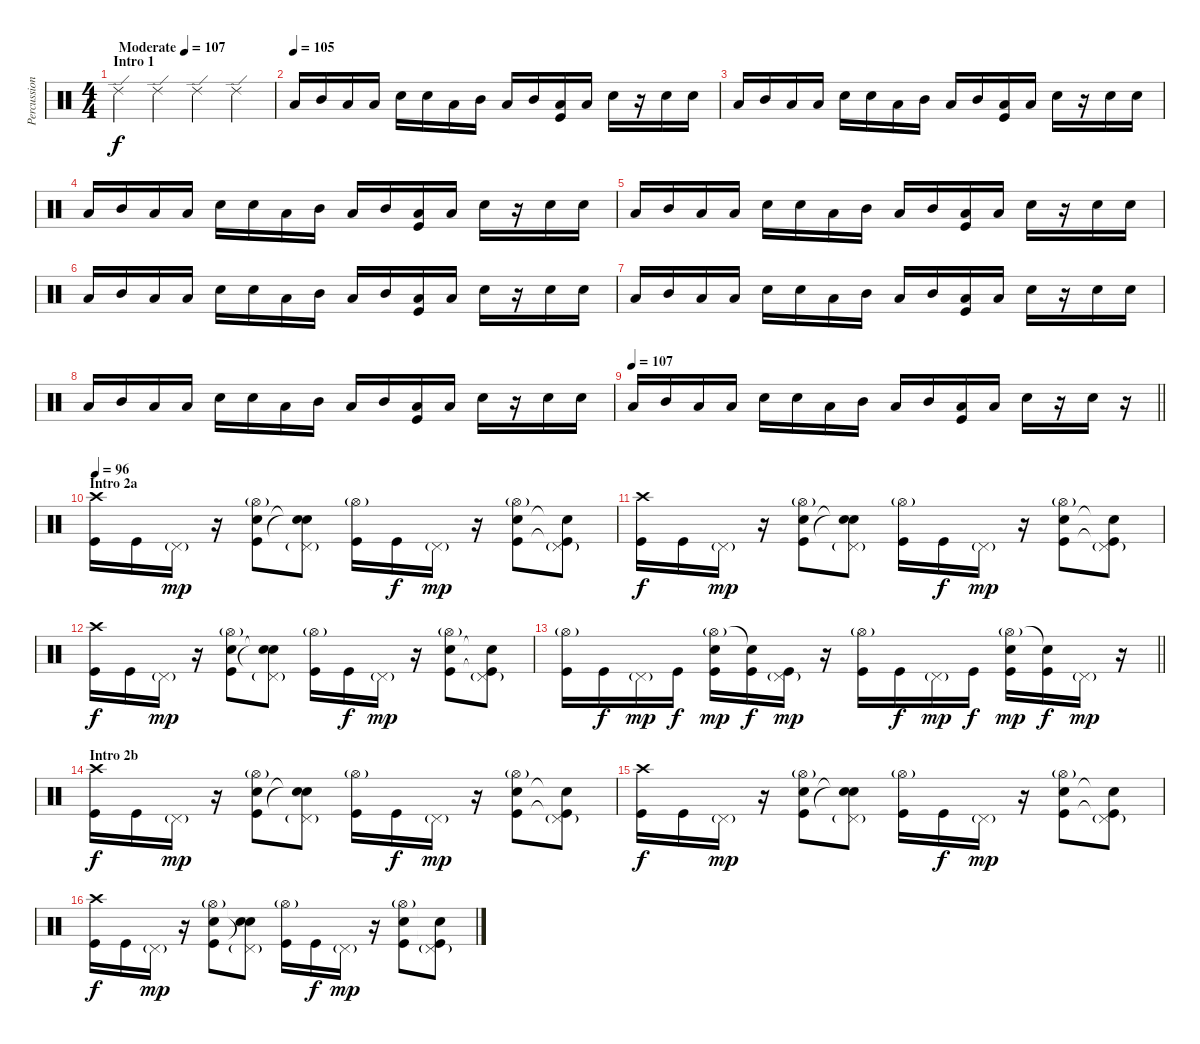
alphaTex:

\track ("Percussion" "Percussion") {instrument percussion}
\staff {score}
\articulation defaults
\ts (4 4)
\section ("" "Intro 1")
\tempo (107 "Moderate")
\clef neutral
\ks c "Ride (edge) 2".4{dy f} "Ride (edge) 2".4 "Ride (edge) 2".4 "Ride (edge) 2".4
|
\tempo (105)
"Low Tom (hit)".16 "Mid Tom (hit)".16 "Low Floor Tom (hit)".16 "Low Floor Tom (hit)".16 "Snare (hit) 2".16 "Snare (hit) 2".16 "Low Floor Tom (hit)".16 "Mid Tom (hit)".16 "Low Tom (hit)".16 "Mid Tom (hit)".16 ("Low Floor Tom (hit)" "Kick (hit)").16 "Low Floor Tom (hit)".16 "Snare (hit) 2".16 r.16 "Snare (hit) 2".16 "Snare (hit) 2".16 |
"Low Tom (hit)".16 "Mid Tom (hit)".16 "Low Floor Tom (hit)".16 "Low Floor Tom (hit)".16 "Snare (hit) 2".16 "Snare (hit) 2".16 "Low Floor Tom (hit)".16 "Mid Tom (hit)".16 "Low Tom (hit)".16 "Mid Tom (hit)".16 ("Low Floor Tom (hit)" "Kick (hit)").16 "Low Floor Tom (hit)".16 "Snare (hit) 2".16 r.16 "Snare (hit) 2".16 "Snare (hit) 2".16 |
"Low Tom (hit)".16 "Mid Tom (hit)".16 "Low Floor Tom (hit)".16 "Low Floor Tom (hit)".16 "Snare (hit) 2".16 "Snare (hit) 2".16 "Low Floor Tom (hit)".16 "Mid Tom (hit)".16 "Low Tom (hit)".16 "Mid Tom (hit)".16 ("Low Floor Tom (hit)" "Kick (hit)").16 "Low Floor Tom (hit)".16 "Snare (hit) 2".16 r.16 "Snare (hit) 2".16 "Snare (hit) 2".16 |
"Low Tom (hit)".16 "Mid Tom (hit)".16 "Low Floor Tom (hit)".16 "Low Floor Tom (hit)".16 "Snare (hit) 2".16 "Snare (hit) 2".16 "Low Floor Tom (hit)".16 "Mid Tom (hit)".16 "Low Tom (hit)".16 "Mid Tom (hit)".16 ("Low Floor Tom (hit)" "Kick (hit)").16 "Low Floor Tom (hit)".16 "Snare (hit) 2".16 r.16 "Snare (hit) 2".16 "Snare (hit) 2".16 |
"Low Tom (hit)".16 "Mid Tom (hit)".16 "Low Floor Tom (hit)".16 "Low Floor Tom (hit)".16 "Snare (hit) 2".16 "Snare (hit) 2".16 "Low Floor Tom (hit)".16 "Mid Tom (hit)".16 "Low Tom (hit)".16 "Mid Tom (hit)".16 ("Low Floor Tom (hit)" "Kick (hit)").16 "Low Floor Tom (hit)".16 "Snare (hit) 2".16 r.16 "Snare (hit) 2".16 "Snare (hit) 2".16 |
"Low Tom (hit)".16 "Mid Tom (hit)".16 "Low Floor Tom (hit)".16 "Low Floor Tom (hit)".16 "Snare (hit) 2".16 "Snare (hit) 2".16 "Low Floor Tom (hit)".16 "Mid Tom (hit)".16 "Low Tom (hit)".16 "Mid Tom (hit)".16 ("Low Floor Tom (hit)" "Kick (hit)").16 "Low Floor Tom (hit)".16 "Snare (hit) 2".16 r.16 "Snare (hit) 2".16 "Snare (hit) 2".16 |
"Low Tom (hit)".16 "Mid Tom (hit)".16 "Low Floor Tom (hit)".16 "Low Floor Tom (hit)".16 "Snare (hit) 2".16 "Snare (hit) 2".16 "Low Floor Tom (hit)".16 "Mid Tom (hit)".16 "Low Tom (hit)".16 "Mid Tom (hit)".16 ("Low Floor Tom (hit)" "Kick (hit)").16 "Low Floor Tom (hit)".16 "Snare (hit) 2".16 r.16 "Snare (hit) 2".16 "Snare (hit) 2".16 |
\tempo 107
\barLineRight lightlight "Low Tom (hit)".16 "Mid Tom (hit)".16 "Low Floor Tom (hit)".16 "Low Floor Tom (hit)".16 "Snare (hit) 2".16 "Snare (hit) 2".16 "Low Floor Tom (hit)".16 "Mid Tom (hit)".16 "Low Tom (hit)".16 "Mid Tom (hit)".16
("Low Floor Tom (hit)" "Kick (hit)").16 "Low Floor Tom (hit)".16 "Snare (hit) 2".16 r.16 "Snare (hit) 2".16 r.16 |
\section ("" "Intro 2a")
\tempo 96
("Crash high (hit)" "Kick (hit)").16 "Kick (hit)".16 "Pedal Hi-Hat (hit)"{g}.16{dy mp} r.16 ("Hi-Hat (open)"{g} "Snare (hit) 2" "Kick (hit)").8 ("Pedal Hi-Hat (hit)"{g} "Snare (hit)"{t} "Snare (hit)"{t}).8 ("Hi-Hat (open)"{g} "Kick (hit)").16 "Kick (hit)".16{dy f} "Pedal Hi-Hat (hit)"{g}.16{dy mp} r.16 ("Hi-Hat (open)"{g} "Snare (hit) 2" "Kick (hit)").8 ("Pedal Hi-Hat (hit)"{g} "Snare (hit)"{t} "Kick (hit)"{t}).8 |
("Crash high (hit)" "Kick (hit)").16{dy f} "Kick (hit)".16 "Pedal Hi-Hat (hit)"{g}.16{dy mp} r.16 ("Hi-Hat (open)"{g} "Snare (hit) 2" "Kick (hit)").8 ("Pedal Hi-Hat (hit)"{g} "Snare (hit)"{t} "Snare (hit)"{t}).8 ("Hi-Hat (open)"{g} "Kick (hit)").16 "Kick (hit)".16{dy f} "Pedal Hi-Hat (hit)"{g}.16{dy mp} r.16 ("Hi-Hat (open)"{g} "Snare (hit) 2" "Kick (hit)").8 ("Pedal Hi-Hat (hit)"{g} "Snare (hit)"{t} "Kick (hit)"{t}).8 |
("Crash high (hit)" "Kick (hit)").16{dy f} "Kick (hit)".16 "Pedal Hi-Hat (hit)"{g}.16{dy mp} r.16 ("Hi-Hat (open)"{g} "Snare (hit) 2" "Kick (hit)").8 ("Pedal Hi-Hat (hit)"{g} "Snare (hit)"{t} "Snare (hit)"{t}).8 ("Hi-Hat (open)"{g} "Kick (hit)").16 "Kick (hit)".16{dy f} "Pedal Hi-Hat (hit)"{g}.16{dy mp} r.16 ("Hi-Hat (open)"{g} "Snare (hit) 2" "Kick (hit)").8 ("Pedal Hi-Hat (hit)"{g} "Snare (hit)"{t} "Kick (hit)"{t}).8 |
\barLineRight lightlight
("Hi-Hat (open)"{g} "Kick (hit)").16 "Kick (hit)".16{dy f} "Pedal Hi-Hat (hit)"{g}.16{dy mp} "Kick (hit)".16{dy f} ("Hi-Hat (open)"{g} "Snare (hit) 2" "Kick (hit)").16{dy mp} ("Snare (hit)"{t} "Kick (hit)").16{dy f} ("Pedal Hi-Hat (hit)"{g} "Kick (hit)").16{dy mp} r.16 ("Hi-Hat (open)"{g} "Kick (hit)").16 "Kick (hit)".16{dy f} "Pedal Hi-Hat (hit)"{g}.16{dy mp} "Kick (hit)".16{dy f} ("Hi-Hat (open)"{g} "Snare (hit) 2" "Kick (hit)").16{dy mp} ("Snare (hit)"{t} "Kick (hit)").16{dy f} "Pedal Hi-Hat (hit)"{g}.16{dy mp} r.16 |
\section ("" "Intro 2b")
("Crash high (hit)" "Kick (hit)").16{dy f} "Kick (hit)".16 "Pedal Hi-Hat (hit)"{g}.16{dy mp} r.16 ("Hi-Hat (open)"{g} "Snare (hit) 2" "Kick (hit)").8 ("Pedal Hi-Hat (hit)"{g} "Snare (hit)"{t} "Snare (hit)"{t}).8 ("Hi-Hat (open)"{g} "Kick (hit)").16 "Kick (hit)".16{dy f} "Pedal Hi-Hat (hit)"{g}.16{dy mp} r.16 ("Hi-Hat (open)"{g} "Snare (hit) 2" "Kick (hit)").8 ("Pedal Hi-Hat (hit)"{g} "Snare (hit)"{t} "Kick (hit)"{t}).8 |
("Crash high (hit)" "Kick (hit)").16{dy f} "Kick (hit)".16 "Pedal Hi-Hat (hit)"{g}.16{dy mp} r.16 ("Hi-Hat (open)"{g} "Snare (hit) 2" "Kick (hit)").8 ("Pedal Hi-Hat (hit)"{g} "Snare (hit)"{t} "Snare (hit)"{t}).8 ("Hi-Hat (open)"{g} "Kick (hit)").16 "Kick (hit)".16{dy f} "Pedal Hi-Hat (hit)"{g}.16{dy mp} r.16 ("Hi-Hat (open)"{g} "Snare (hit) 2" "Kick (hit)").8 ("Pedal Hi-Hat (hit)"{g} "Snare (hit)"{t} "Kick (hit)"{t}).8 |
("Crash high (hit)" "Kick (hit)").16{dy f} "Kick (hit)".16 "Pedal Hi-Hat (hit)"{g}.16{dy mp} r.16 ("Hi-Hat (open)"{g} "Snare (hit) 2" "Kick (hit)").8 ("Pedal Hi-Hat (hit)"{g} "Snare (hit)"{t} "Snare (hit)"{t}).8 ("Hi-Hat (open)"{g} "Kick (hit)").16 "Kick (hit)".16{dy f} "Pedal Hi-Hat (hit)"{g}.16{dy mp} r.16 ("Hi-Hat (open)"{g} "Snare (hit) 2" "Kick (hit)").8 ("Pedal Hi-Hat (hit)"{g} "Snare (hit)"{t} "Kick (hit)"{t}).8
